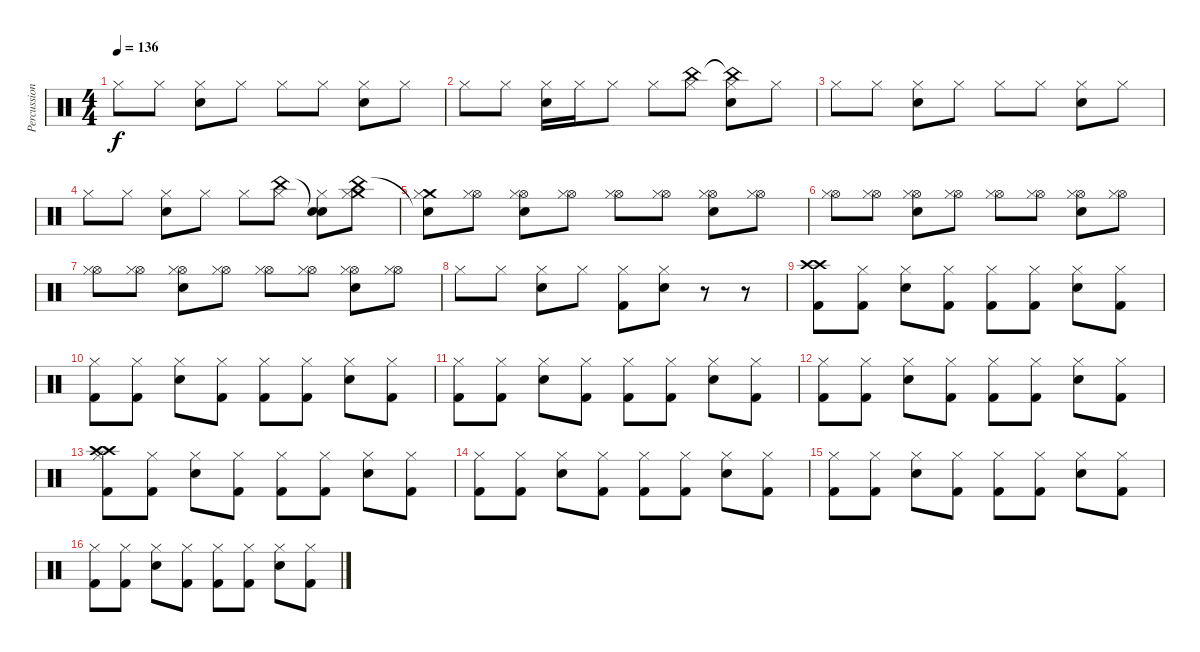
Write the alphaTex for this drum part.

\track ("Percussion" "Percussion") {instrument percussion}
\staff {score}
\articulation defaults
\ts (4 4)
\tempo 136
\clef neutral
\ks c "Hi-Hat (closed)".8{dy f} "Hi-Hat (closed)".8
("Hi-Hat (closed)" "Snare (hit) 2").8 "Hi-Hat (closed)".8 "Hi-Hat (closed)".8 "Hi-Hat (closed)".8 ("Hi-Hat (closed)" "Snare (hit) 2").8 "Hi-Hat (closed)".8 |
"Hi-Hat (closed)".8 "Hi-Hat (closed)".8 ("Hi-Hat (closed)" "Snare (hit) 2").16 "Hi-Hat (closed)".16 "Hi-Hat (closed)".8 "Hi-Hat (closed)".8 ("Hi-Hat (closed)" "China (hit)").8 ("Hi-Hat (closed)" "China (hit)"{t} "Snare (hit) 2").8 "Hi-Hat (closed)".8 |
"Hi-Hat (closed)".8 "Hi-Hat (closed)".8 ("Hi-Hat (closed)" "Snare (hit) 2").8 "Hi-Hat (closed)".8 "Hi-Hat (closed)".8 "Hi-Hat (closed)".8 ("Hi-Hat (closed)" "Snare (hit) 2").8 "Hi-Hat (closed)".8 |
"Hi-Hat (closed)".8 "Hi-Hat (closed)".8 ("Hi-Hat (closed)" "Snare (hit) 2").8 "Hi-Hat (closed)".8 "Hi-Hat (closed)".8 ("Hi-Hat (closed)" "China (hit)").8 ("Hi-Hat (closed)" "Snare (hit)"{t} "Snare (hit) 2").8 ("Crash medium (hit)" "Hi-Hat (closed)" "China (hit)").8 |
("Crash medium (hit)" "Hi-Hat (closed)" "Snare (hit)"{t}).8 ("Hi-Hat (open)" "Hi-Hat (closed)").8 ("Hi-Hat (open)" "Hi-Hat (closed)" "Electric Snare (hit)").8 ("Hi-Hat (open)" "Hi-Hat (closed)").8 ("Hi-Hat (open)" "Hi-Hat (closed)").8 ("Hi-Hat (open)" "Hi-Hat (closed)").8 ("Hi-Hat (open)" "Hi-Hat (closed)" "Electric Snare (hit)").8 ("Hi-Hat (open)" "Hi-Hat (closed)").8 |
("Hi-Hat (open)" "Hi-Hat (closed)").8 ("Hi-Hat (open)" "Hi-Hat (closed)").8 ("Hi-Hat (open)" "Hi-Hat (closed)" "Electric Snare (hit)").8 ("Hi-Hat (open)" "Hi-Hat (closed)").8 ("Hi-Hat (open)" "Hi-Hat (closed)").8 ("Hi-Hat (open)" "Hi-Hat (closed)").8 ("Hi-Hat (open)" "Hi-Hat (closed)" "Electric Snare (hit)").8 ("Hi-Hat (open)" "Hi-Hat (closed)").8 |
("Hi-Hat (open)" "Hi-Hat (closed)").8 ("Hi-Hat (open)" "Hi-Hat (closed)").8 ("Hi-Hat (open)" "Hi-Hat (closed)" "Electric Snare (hit)").8 ("Hi-Hat (open)" "Hi-Hat (closed)").8 ("Hi-Hat (open)" "Hi-Hat (closed)").8 ("Hi-Hat (open)" "Hi-Hat (closed)").8 ("Hi-Hat (open)" "Hi-Hat (closed)" "Electric Snare (hit)").8 ("Hi-Hat (open)" "Hi-Hat (closed)").8 |
"Hi-Hat (closed)".8 "Hi-Hat (closed)".8 ("Hi-Hat (closed)" "Electric Snare (hit)").8 "Hi-Hat (closed)".8 ("Hi-Hat (closed)" "Kick (hit) 2").8 ("Hi-Hat (closed)" "Electric Snare (hit)").8 r.8 r.8 |
("Crash high (hit)" "Crash high (hit)" "Kick (hit) 2").8 ("Hi-Hat (closed)" "Kick (hit) 2").8 ("Hi-Hat (closed)" "Electric Snare (hit)").8 ("Hi-Hat (closed)" "Kick (hit) 2").8 ("Hi-Hat (closed)" "Kick (hit) 2").8 ("Hi-Hat (closed)" "Kick (hit) 2").8 ("Hi-Hat (closed)" "Electric Snare (hit)").8 ("Hi-Hat (closed)" "Kick (hit) 2").8 |
("Hi-Hat (closed)" "Kick (hit) 2").8 ("Hi-Hat (closed)" "Kick (hit) 2").8 ("Hi-Hat (closed)" "Electric Snare (hit)").8 ("Hi-Hat (closed)" "Kick (hit) 2").8 ("Hi-Hat (closed)" "Kick (hit) 2").8 ("Hi-Hat (closed)" "Kick (hit) 2").8 ("Hi-Hat (closed)" "Electric Snare (hit)").8 ("Hi-Hat (closed)" "Kick (hit) 2").8 |
("Hi-Hat (closed)" "Kick (hit) 2").8 ("Hi-Hat (closed)" "Kick (hit) 2").8 ("Hi-Hat (closed)" "Electric Snare (hit)").8 ("Hi-Hat (closed)" "Kick (hit) 2").8 ("Hi-Hat (closed)" "Kick (hit) 2").8 ("Hi-Hat (closed)" "Kick (hit) 2").8 ("Hi-Hat (closed)" "Electric Snare (hit)").8 ("Hi-Hat (closed)" "Kick (hit) 2").8 |
("Hi-Hat (closed)" "Kick (hit) 2").8 ("Hi-Hat (closed)" "Kick (hit) 2").8 ("Hi-Hat (closed)" "Electric Snare (hit)").8 ("Hi-Hat (closed)" "Kick (hit) 2").8 ("Hi-Hat (closed)" "Kick (hit) 2").8 ("Hi-Hat (closed)" "Kick (hit) 2").8 ("Hi-Hat (closed)" "Electric Snare (hit)").8 ("Hi-Hat (closed)" "Kick (hit) 2").8 |
("Crash high (hit)" "Crash high (hit)" "Hi-Hat (closed)" "Kick (hit) 2").8 ("Hi-Hat (closed)" "Kick (hit) 2").8 ("Hi-Hat (closed)" "Electric Snare (hit)").8 ("Hi-Hat (closed)" "Kick (hit) 2").8 ("Hi-Hat (closed)" "Kick (hit) 2").8 ("Hi-Hat (closed)" "Kick (hit) 2").8 ("Hi-Hat (closed)" "Electric Snare (hit)").8 ("Hi-Hat (closed)" "Kick (hit) 2").8 |
("Hi-Hat (closed)" "Kick (hit) 2").8 ("Hi-Hat (closed)" "Kick (hit) 2").8 ("Hi-Hat (closed)" "Electric Snare (hit)").8 ("Hi-Hat (closed)" "Kick (hit) 2").8 ("Hi-Hat (closed)" "Kick (hit) 2").8 ("Hi-Hat (closed)" "Kick (hit) 2").8 ("Hi-Hat (closed)" "Electric Snare (hit)").8 ("Hi-Hat (closed)" "Kick (hit) 2").8 |
("Hi-Hat (closed)" "Kick (hit) 2").8 ("Hi-Hat (closed)" "Kick (hit) 2").8 ("Hi-Hat (closed)" "Electric Snare (hit)").8 ("Hi-Hat (closed)" "Kick (hit) 2").8 ("Hi-Hat (closed)" "Kick (hit) 2").8 ("Hi-Hat (closed)" "Kick (hit) 2").8 ("Hi-Hat (closed)" "Electric Snare (hit)").8 ("Hi-Hat (closed)" "Kick (hit) 2").8 |
("Hi-Hat (closed)" "Kick (hit) 2").8 ("Hi-Hat (closed)" "Kick (hit) 2").8 ("Hi-Hat (closed)" "Electric Snare (hit)").8 ("Hi-Hat (closed)" "Kick (hit) 2").8 ("Hi-Hat (closed)" "Kick (hit) 2").8 ("Hi-Hat (closed)" "Kick (hit) 2").8 ("Hi-Hat (closed)" "Electric Snare (hit)").8 ("Hi-Hat (closed)" "Kick (hit) 2").8
